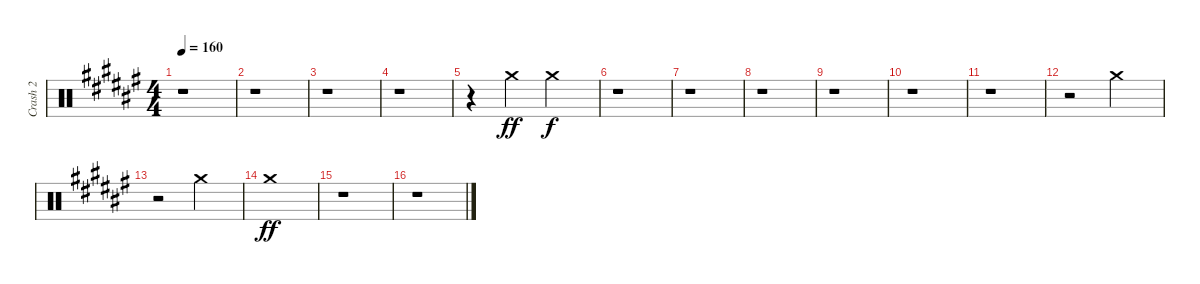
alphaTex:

\track ("Crash 2" "Crash 2") {instrument percussion}
\staff {score}
\articulation defaults
\ts (4 4)
\tempo 160
\clef neutral
\ks d#minor
r.1{dy ff} |
r.1 |
r.1 |
r.1 |
r.4 "Crash medium (hit)".4 "Crash medium (hit)".2{dy f} |
r.1 |
r.1 |
r.1 |
r.1 |
r.1 |
r.1 |
r.2 "Crash medium (hit)".2 |
r.2 "Crash medium (hit)".2 |
"Crash medium (hit)".1{dy ff} |
r.1 |
r.1
